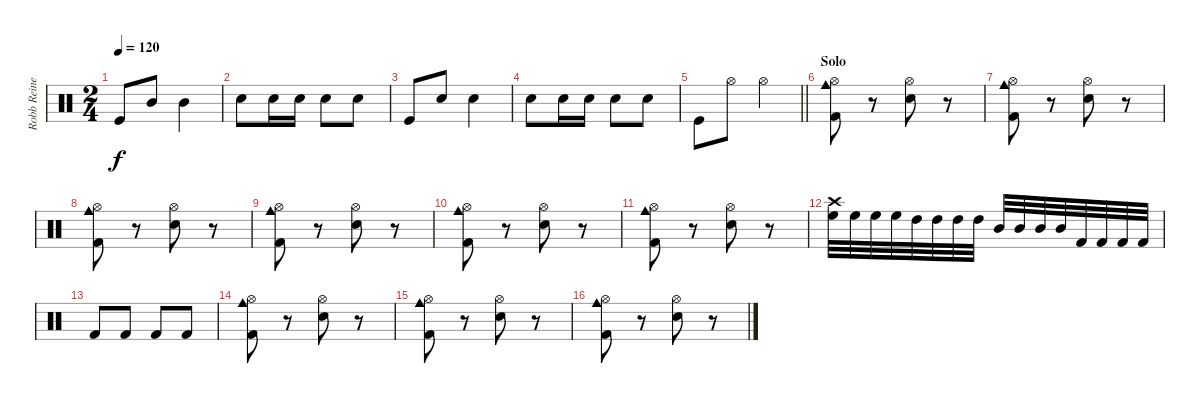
\track ("Robb Reiner" "Robb Reine") {instrument percussion}
\staff {score}
\articulation defaults
\ts (2 4)
\tempo 120
\clef neutral
\ks c "Kick (hit)".8{dy f} "Mid Tom (hit)".8 "Mid Tom (hit)".4
|
"Snare (hit) 2".8 "Snare (hit) 2".16 "Snare (hit) 2".16 "Snare (hit) 2".8 "Snare (hit) 2".8 |
"Kick (hit)".8 "Snare (hit) 2".8 "Snare (hit) 2".4 |
"Snare (hit) 2".8 "Snare (hit) 2".16 "Snare (hit) 2".16 "Snare (hit) 2".8 "Snare (hit) 2".8 |
\barLineRight lightlight "Kick (hit)".8 "Hi-Hat (open)".8 "Hi-Hat (open)".4
|
\section ("" "Solo")
("Cowbell medium (hit)" "Hi-Hat (open)" "Kick (hit) 2").8 r.8 ("Hi-Hat (open)" "Snare (hit) 2").8 r.8 |
("Cowbell medium (hit)" "Hi-Hat (open)" "Kick (hit) 2").8 r.8 ("Hi-Hat (open)" "Snare (hit) 2").8 r.8 |
("Cowbell medium (hit)" "Hi-Hat (open)" "Kick (hit) 2").8 r.8 ("Hi-Hat (open)" "Snare (hit) 2").8 r.8 |
("Cowbell medium (hit)" "Hi-Hat (open)" "Kick (hit) 2").8 r.8 ("Hi-Hat (open)" "Snare (hit) 2").8 r.8 |
("Cowbell medium (hit)" "Hi-Hat (open)" "Kick (hit) 2").8 r.8 ("Hi-Hat (open)" "Snare (hit) 2").8 r.8 |
("Cowbell medium (hit)" "Hi-Hat (open)" "Kick (hit) 2").8 r.8 ("Hi-Hat (open)" "Snare (hit) 2").8 r.8 |
("High Floor Tom (hit)" "Crash high (hit)").32 "High Floor Tom (hit)".32 "High Floor Tom (hit)".32 "High Floor Tom (hit)".32 "High Tom (hit)".32 "High Tom (hit)".32 "High Tom (hit)".32 "High Tom (hit)".32 "Mid Tom (hit)".32 "Mid Tom (hit)".32 "Mid Tom (hit)".32 "Mid Tom (hit)".32 "Kick (hit) 2".32 "Kick (hit) 2".32 "Kick (hit) 2".32 "Kick (hit) 2".32 |
"Kick (hit) 2".8 "Kick (hit) 2".8 "Kick (hit) 2".8 "Kick (hit) 2".8 |
("Cowbell medium (hit)" "Hi-Hat (open)" "Kick (hit) 2").8 r.8 ("Hi-Hat (open)" "Snare (hit) 2").8 r.8 |
("Cowbell medium (hit)" "Hi-Hat (open)" "Kick (hit) 2").8 r.8 ("Hi-Hat (open)" "Snare (hit) 2").8 r.8 |
("Cowbell medium (hit)" "Hi-Hat (open)" "Kick (hit) 2").8 r.8 ("Hi-Hat (open)" "Snare (hit) 2").8 r.8
